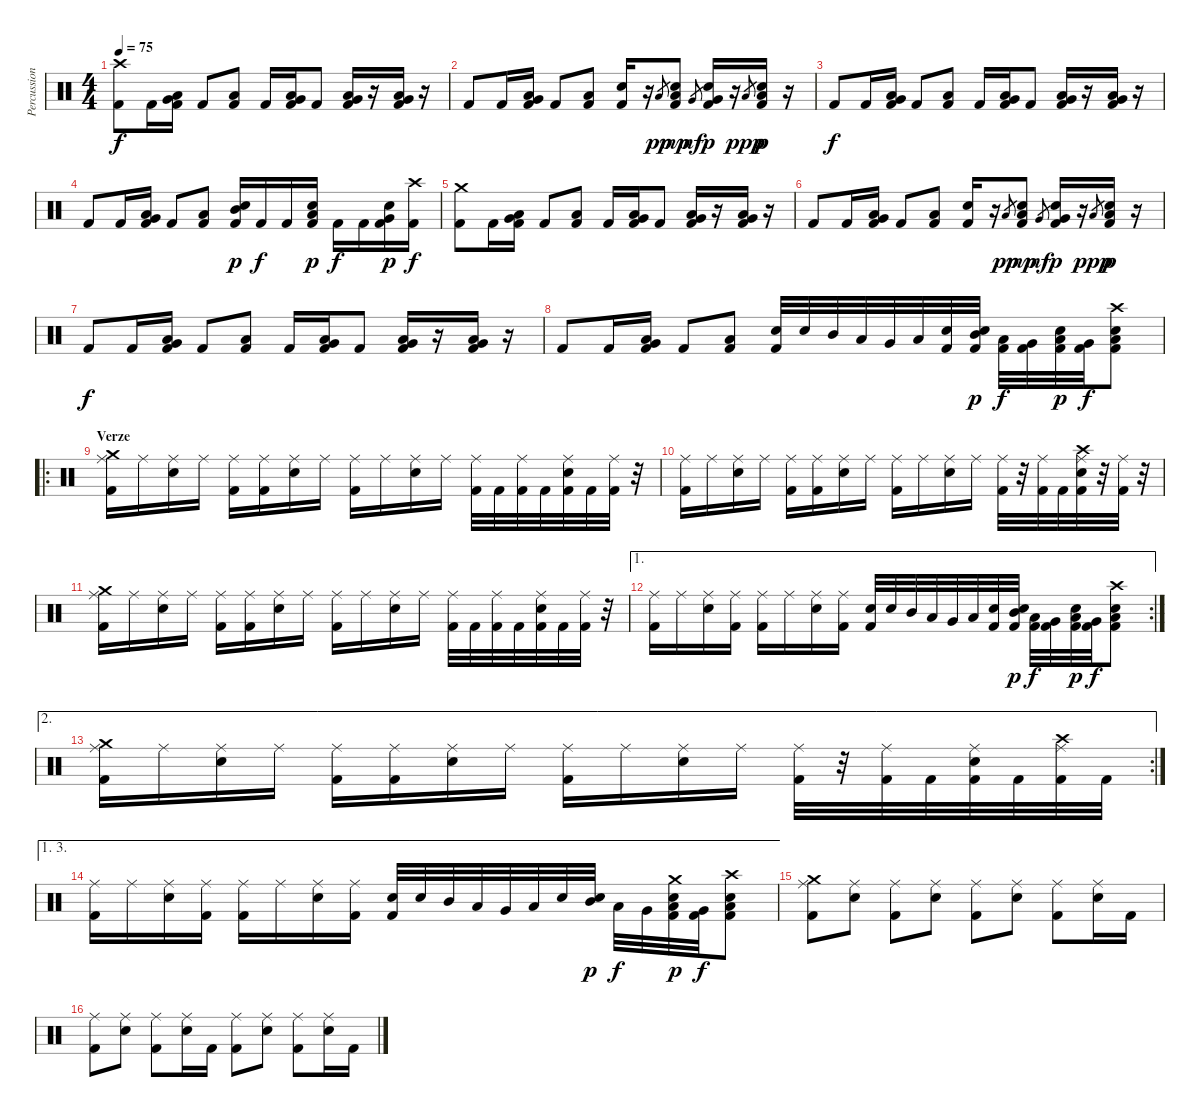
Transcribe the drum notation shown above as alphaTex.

\track ("Percussion" "Percussion") {instrument percussion}
\staff {score}
\articulation defaults
\ts (4 4)
\tempo 75
\clef neutral
\ks c
("Crash high (hit)" "Kick (hit) 2").8{dy f} "Kick (hit) 2".16 ("Kick (hit) 2" "Low Tom (hit)" "Very Low Tom (hit)").16 "Kick (hit) 2".8 ("Kick (hit) 2" "Low Tom (hit)").8 "Kick (hit) 2".16 ("Kick (hit) 2" "Low Tom (hit)" "Very Low Tom (hit)").16 "Kick (hit) 2".8 ("Kick (hit) 2" "Low Tom (hit)" "Very Low Tom (hit)").16 r.16 ("Kick (hit) 2" "Low Tom (hit)" "Very Low Tom (hit)").16 r.16 |
"Kick (hit) 2".8 "Kick (hit) 2".16 ("Kick (hit) 2" "Low Tom (hit)" "Very Low Tom (hit)").16 "Kick (hit) 2".8 ("Kick (hit) 2" "Low Tom (hit)").8 ("Kick (hit) 2" "Electric Snare (hit)").16 r.16 "Low Tom (hit)".8{gr dy pp} ("Kick (hit) 2" "Low Tom (hit)" "Electric Snare (hit)").8{dy mp} "Very Low Tom (hit)".8{gr dy mf} ("Kick (hit) 2" "Very Low Tom (hit)" "Electric Snare (hit)").16{dy p} r.16 "Low Floor Tom (hit)".8{gr dy ppp} ("Kick (hit) 2" "Low Floor Tom (hit)" "Electric Snare (hit)").16{dy p} r.16 |
"Kick (hit) 2".8{dy f} "Kick (hit) 2".16 ("Kick (hit) 2" "Low Tom (hit)" "Very Low Tom (hit)").16 "Kick (hit) 2".8 ("Kick (hit) 2" "Low Tom (hit)").8 "Kick (hit) 2".16 ("Kick (hit) 2" "Low Tom (hit)" "Very Low Tom (hit)").16 "Kick (hit) 2".8 ("Kick (hit) 2" "Low Tom (hit)" "Very Low Tom (hit)").16 r.16 ("Kick (hit) 2" "Low Tom (hit)" "Very Low Tom (hit)").16 r.16 |
"Kick (hit) 2".8 "Kick (hit) 2".16 ("Kick (hit) 2" "Low Tom (hit)" "Very Low Tom (hit)").16 "Kick (hit) 2".8 ("Kick (hit) 2" "Low Tom (hit)").8 ("Kick (hit) 2" "Electric Snare (hit)" "Mid Tom (hit)").16{dy p} "Kick (hit) 2".16{dy f} "Kick (hit) 2".16 ("Kick (hit) 2" "Electric Snare (hit)" "Low Tom (hit)").16{dy p} "Kick (hit) 2".16{dy f} "Kick (hit) 2".16 ("Kick (hit) 2" "Electric Snare (hit)" "Very Low Tom (hit)").16{dy p} ("Crash high (hit)" "Kick (hit) 2").16{dy f} |
("Crash medium (hit)" "Kick (hit) 2").8 "Kick (hit) 2".16 ("Kick (hit) 2" "Low Tom (hit)" "Very Low Tom (hit)").16 "Kick (hit) 2".8 ("Kick (hit) 2" "Low Tom (hit)").8 "Kick (hit) 2".16 ("Kick (hit) 2" "Low Tom (hit)" "Very Low Tom (hit)").16 "Kick (hit) 2".8 ("Kick (hit) 2" "Low Tom (hit)" "Very Low Tom (hit)").16 r.16 ("Kick (hit) 2" "Low Tom (hit)" "Very Low Tom (hit)").16 r.16 |
"Kick (hit) 2".8 "Kick (hit) 2".16 ("Kick (hit) 2" "Low Tom (hit)" "Very Low Tom (hit)").16 "Kick (hit) 2".8 ("Kick (hit) 2" "Low Tom (hit)").8 ("Kick (hit) 2" "Electric Snare (hit)").16 r.16 "Low Tom (hit)".8{gr dy pp} ("Kick (hit) 2" "Low Tom (hit)" "Electric Snare (hit)").8{dy mp} "Very Low Tom (hit)".8{gr dy mf} ("Kick (hit) 2" "Very Low Tom (hit)" "Electric Snare (hit)").16{dy p} r.16 "Low Floor Tom (hit)".8{gr dy ppp} ("Kick (hit) 2" "Low Floor Tom (hit)" "Electric Snare (hit)").16{dy p} r.16 |
"Kick (hit) 2".8{dy f} "Kick (hit) 2".16 ("Kick (hit) 2" "Low Tom (hit)" "Very Low Tom (hit)").16 "Kick (hit) 2".8 ("Kick (hit) 2" "Low Tom (hit)").8 "Kick (hit) 2".16 ("Kick (hit) 2" "Low Tom (hit)" "Very Low Tom (hit)").16 "Kick (hit) 2".8 ("Kick (hit) 2" "Low Tom (hit)" "Very Low Tom (hit)").16 r.16 ("Kick (hit) 2" "Low Tom (hit)" "Very Low Tom (hit)").16 r.16 |
"Kick (hit) 2".8 "Kick (hit) 2".16 ("Kick (hit) 2" "Low Tom (hit)" "Very Low Tom (hit)").16 "Kick (hit) 2".8 ("Kick (hit) 2" "Low Tom (hit)").8 ("Kick (hit) 2" "Electric Snare (hit)").32 "Electric Snare (hit)".32 "Mid Tom (hit)".32 "Low Tom (hit)".32 "Very Low Tom (hit)".32 "Low Floor Tom (hit)".32 ("Kick (hit) 2" "Electric Snare (hit)").32 ("Kick (hit) 2" "Electric Snare (hit)" "Mid Tom (hit)").32{dy p} ("Kick (hit) 2" "Low Tom (hit)").32{dy f} ("Kick (hit) 2" "Very Low Tom (hit)").32 ("Kick (hit) 2" "Electric Snare (hit)" "Low Tom (hit)").32{dy p} ("Kick (hit) 2" "Very Low Tom (hit)").32{dy f} ("Crash high (hit)" "Kick (hit) 2" "Low Tom (hit)" "Electric Snare (hit)").8 |
\ro
\section ("" "Verze")
("Ride (middle)" "Crash medium (hit)" "Kick (hit) 2").16 "Ride (middle)".16 ("Ride (middle)" "Electric Snare (hit)").16 "Ride (middle)".16 ("Ride (middle)" "Kick (hit) 2").16 ("Ride (middle)" "Kick (hit) 2").16 ("Ride (middle)" "Electric Snare (hit)").16 "Ride (middle)".16 ("Ride (middle)" "Kick (hit) 2").16 "Ride (middle)".16 ("Ride (middle)" "Electric Snare (hit)").16 "Ride (middle)".16 ("Ride (middle)" "Kick (hit) 2").32 "Kick (hit) 2".32 ("Ride (middle)" "Kick (hit) 2").32 "Kick (hit) 2".32 ("Ride (middle)" "Kick (hit) 2" "Electric Snare (hit)").32 "Kick (hit) 2".32 ("Ride (middle)" "Kick (hit) 2").32 r.32 |
("Ride (middle)" "Kick (hit) 2").16 "Ride (middle)".16 ("Ride (middle)" "Electric Snare (hit)").16 "Ride (middle)".16 ("Ride (middle)" "Kick (hit) 2").16 ("Ride (middle)" "Kick (hit) 2").16 ("Ride (middle)" "Electric Snare (hit)").16 "Ride (middle)".16 ("Ride (middle)" "Kick (hit) 2").16 "Ride (middle)".16 ("Ride (middle)" "Electric Snare (hit)").16 "Ride (middle)".16 ("Ride (middle)" "Kick (hit) 2").32 r.32 ("Ride (middle)" "Kick (hit) 2").32 "Kick (hit) 2".32 ("Ride (middle)" "Crash high (hit)" "Kick (hit) 2" "Electric Snare (hit)").32 r.32 ("Ride (middle)" "Kick (hit) 2").32 r.32 |
("Ride (middle)" "Crash medium (hit)" "Kick (hit) 2").16 "Ride (middle)".16 ("Ride (middle)" "Electric Snare (hit)").16 "Ride (middle)".16 ("Ride (middle)" "Kick (hit) 2").16 ("Ride (middle)" "Kick (hit) 2").16 ("Ride (middle)" "Electric Snare (hit)").16 "Ride (middle)".16 ("Ride (middle)" "Kick (hit) 2").16 "Ride (middle)".16 ("Ride (middle)" "Electric Snare (hit)").16 "Ride (middle)".16 ("Ride (middle)" "Kick (hit) 2").32 "Kick (hit) 2".32 ("Ride (middle)" "Kick (hit) 2").32 "Kick (hit) 2".32 ("Ride (middle)" "Kick (hit) 2" "Electric Snare (hit)").32 "Kick (hit) 2".32 ("Ride (middle)" "Kick (hit) 2").32 r.32 |
\ae 1
\rc 2
("Ride (middle)" "Kick (hit) 2").16 "Ride (middle)".16 ("Ride (middle)" "Electric Snare (hit)").16 ("Ride (middle)" "Kick (hit) 2").16 ("Ride (middle)" "Kick (hit) 2").16 "Ride (middle)".16 ("Ride (middle)" "Electric Snare (hit)").16 ("Ride (middle)" "Kick (hit) 2").16 ("Kick (hit) 2" "Electric Snare (hit)").32 "Electric Snare (hit)".32 "Mid Tom (hit)".32 "Low Tom (hit)".32 "Very Low Tom (hit)".32 "Low Floor Tom (hit)".32 ("Kick (hit) 2" "Electric Snare (hit)").32 ("Kick (hit) 2" "Electric Snare (hit)" "Mid Tom (hit)").32{dy p} ("Kick (hit) 2" "Low Tom (hit)").32{dy f} ("Kick (hit) 2" "Very Low Tom (hit)").32 ("Kick (hit) 2" "Electric Snare (hit)" "Low Tom (hit)").32{dy p} ("Kick (hit) 2" "Very Low Tom (hit)").32{dy f} ("Crash high (hit)" "Kick (hit) 2" "Low Tom (hit)" "Electric Snare (hit)").8 |
\ae 2
\rc 2
("Ride (middle)" "Crash medium (hit)" "Kick (hit) 2").16 "Ride (middle)".16 ("Ride (middle)" "Electric Snare (hit)").16 "Ride (middle)".16 ("Ride (middle)" "Kick (hit) 2").16 ("Ride (middle)" "Kick (hit) 2").16 ("Ride (middle)" "Electric Snare (hit)").16 "Ride (middle)".16 ("Ride (middle)" "Kick (hit) 2").16 "Ride (middle)".16 ("Ride (middle)" "Electric Snare (hit)").16 "Ride (middle)".16 ("Ride (middle)" "Kick (hit) 2").32 r.32 ("Ride (middle)" "Kick (hit) 2").32 "Kick (hit) 2".32 ("Ride (middle)" "Kick (hit) 2" "Electric Snare (hit)").32 "Kick (hit) 2".32 ("Ride (middle)" "Crash high (hit)" "Kick (hit) 2").32 "Kick (hit) 2".32 |
\ae (1 3)
("Ride (middle)" "Kick (hit) 2").16 "Ride (middle)".16 ("Ride (middle)" "Electric Snare (hit)").16 ("Ride (middle)" "Kick (hit) 2").16 ("Ride (middle)" "Kick (hit) 2").16 "Ride (middle)".16 ("Ride (middle)" "Electric Snare (hit)").16 ("Ride (middle)" "Kick (hit) 2").16 ("Kick (hit) 2" "Electric Snare (hit)").32 "Electric Snare (hit)".32 "Mid Tom (hit)".32 "Low Tom (hit)".32 "Very Low Tom (hit)".32 "Low Floor Tom (hit)".32 "Electric Snare (hit)".32 ("Electric Snare (hit)" "Mid Tom (hit)").32{dy p} "Low Tom (hit)".32{dy f} "Very Low Tom (hit)".32 ("Crash medium (hit)" "Kick (hit) 2" "Electric Snare (hit)" "Low Tom (hit)").32{dy p} ("Kick (hit) 2" "Very Low Tom (hit)").32{dy f} ("Crash high (hit)" "Kick (hit) 2" "Low Tom (hit)" "Electric Snare (hit)").8 |
("Ride (middle)" "Crash medium (hit)" "Kick (hit) 2").8 ("Ride (middle)" "Electric Snare (hit)").8 ("Ride (middle)" "Kick (hit) 2").8 ("Ride (middle)" "Electric Snare (hit)").8 ("Ride (middle)" "Kick (hit) 2").8 ("Ride (middle)" "Electric Snare (hit)").8 ("Ride (middle)" "Kick (hit) 2").8 ("Ride (middle)" "Electric Snare (hit)").16 "Kick (hit) 2".16 |
("Ride (middle)" "Kick (hit) 2").8 ("Ride (middle)" "Electric Snare (hit)").8 ("Ride (middle)" "Kick (hit) 2").8 ("Ride (middle)" "Electric Snare (hit)").16 "Kick (hit) 2".16 ("Ride (middle)" "Kick (hit) 2").8 ("Ride (middle)" "Electric Snare (hit)").8 ("Ride (middle)" "Kick (hit) 2").8 ("Ride (middle)" "Electric Snare (hit)").16 "Kick (hit) 2".16
